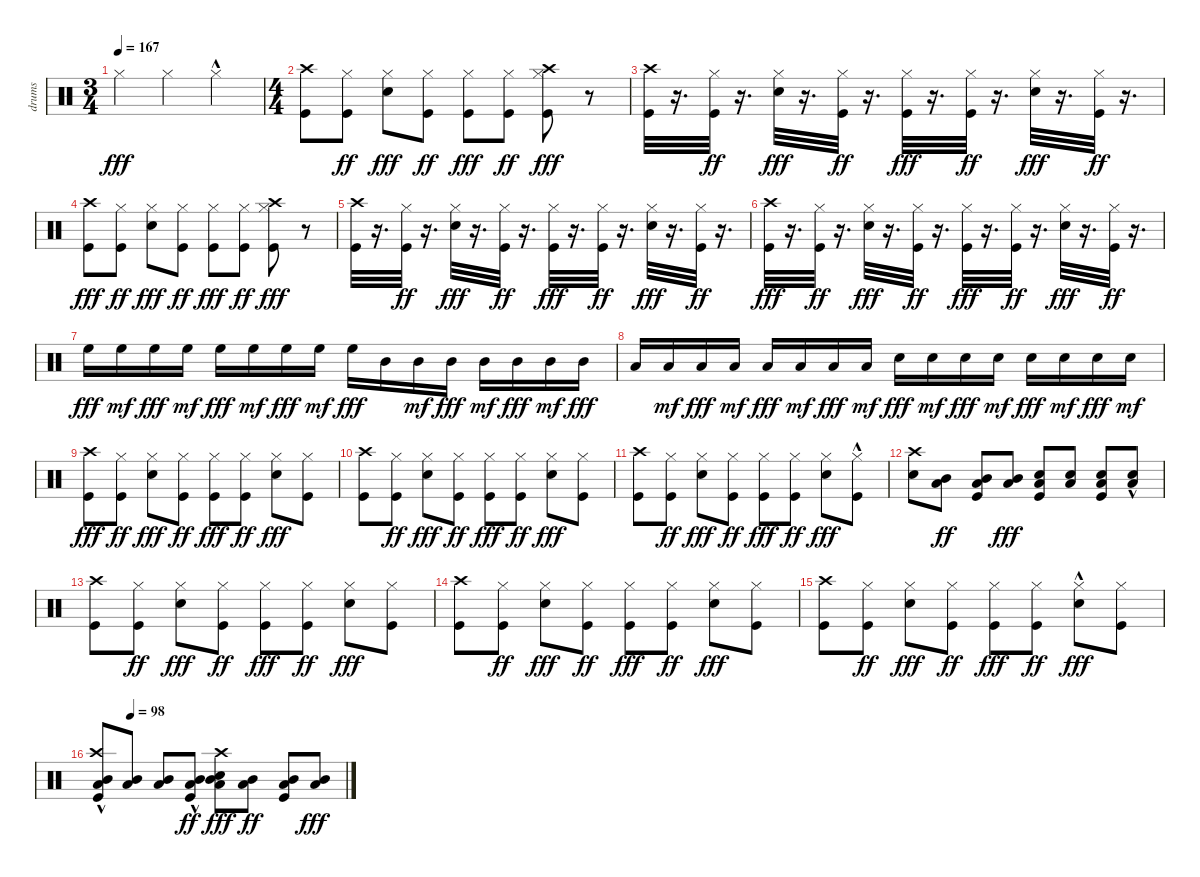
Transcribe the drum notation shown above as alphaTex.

\track ("drums" "drums") {instrument percussion}
\staff {score}
\articulation defaults
\ts (3 4)
\tempo 167
\clef neutral
\ks c "Hi-Hat (closed)".4{dy fff} "Hi-Hat (closed)".4 "Hi-Hat (closed)"{hac}.4
|
\ts (4 4)
("Kick (hit)" "Crash high (hit)").8 ("Kick (hit)" "Hi-Hat (closed)").8{dy ff} ("Snare (hit) 2" "Hi-Hat (closed)").8{dy fff} ("Kick (hit)" "Hi-Hat (closed)").8{dy ff} ("Kick (hit)" "Hi-Hat (closed)").8{dy fff} ("Kick (hit)" "Hi-Hat (closed)").8{dy ff} ("Kick (hit)" "Hi-Hat (closed)" "Crash high (hit)").8{dy fff} r.8 |
("Kick (hit)" "Crash high (hit)").32 r.16{d} ("Kick (hit)" "Hi-Hat (closed)").32{dy ff} r.16{d} ("Snare (hit) 2" "Hi-Hat (closed)").32{dy fff} r.16{d} ("Kick (hit)" "Hi-Hat (closed)").32{dy ff} r.16{d} ("Kick (hit)" "Hi-Hat (closed)").32{dy fff} r.16{d} ("Kick (hit)" "Hi-Hat (closed)").32{dy ff} r.16{d} ("Snare (hit) 2" "Hi-Hat (closed)").32{dy fff} r.16{d} ("Kick (hit)" "Hi-Hat (closed)").32{dy ff} r.16{d} |
("Kick (hit)" "Crash high (hit)").8{dy fff} ("Kick (hit)" "Hi-Hat (closed)").8{dy ff} ("Snare (hit) 2" "Hi-Hat (closed)").8{dy fff} ("Kick (hit)" "Hi-Hat (closed)").8{dy ff} ("Kick (hit)" "Hi-Hat (closed)").8{dy fff} ("Kick (hit)" "Hi-Hat (closed)").8{dy ff} ("Kick (hit)" "Hi-Hat (closed)" "Crash high (hit)").8{dy fff} r.8 |
("Kick (hit)" "Crash high (hit)").32 r.16{d} ("Kick (hit)" "Hi-Hat (closed)").32{dy ff} r.16{d} ("Snare (hit) 2" "Hi-Hat (closed)").32{dy fff} r.16{d} ("Kick (hit)" "Hi-Hat (closed)").32{dy ff} r.16{d} ("Kick (hit)" "Hi-Hat (closed)").32{dy fff} r.16{d} ("Kick (hit)" "Hi-Hat (closed)").32{dy ff} r.16{d} ("Snare (hit) 2" "Hi-Hat (closed)").32{dy fff} r.16{d} ("Kick (hit)" "Hi-Hat (closed)").32{dy ff} r.16{d} |
("Kick (hit)" "Crash high (hit)").32{dy fff} r.16{d} ("Kick (hit)" "Hi-Hat (closed)").32{dy ff} r.16{d} ("Snare (hit) 2" "Hi-Hat (closed)").32{dy fff} r.16{d} ("Kick (hit)" "Hi-Hat (closed)").32{dy ff} r.16{d} ("Kick (hit)" "Hi-Hat (closed)").32{dy fff} r.16{d} ("Kick (hit)" "Hi-Hat (closed)").32{dy ff} r.16{d} ("Snare (hit) 2" "Hi-Hat (closed)").32{dy fff} r.16{d} ("Kick (hit)" "Hi-Hat (closed)").32{dy ff} r.16{d} |
"High Floor Tom (hit)".16{dy fff} "High Floor Tom (hit)".16{dy mf} "High Floor Tom (hit)".16{dy fff} "High Floor Tom (hit)".16{dy mf} "High Floor Tom (hit)".16{dy fff} "High Floor Tom (hit)".16{dy mf} "High Floor Tom (hit)".16{dy fff} "High Floor Tom (hit)".16{dy mf} "High Floor Tom (hit)".16{dy fff} "Mid Tom (hit)".16 "Mid Tom (hit)".16{dy mf} "Mid Tom (hit)".16{dy fff} "Mid Tom (hit)".16{dy mf} "Mid Tom (hit)".16{dy fff} "Mid Tom (hit)".16{dy mf} "Mid Tom (hit)".16{dy fff} |
"Low Floor Tom (hit)".16 "Low Floor Tom (hit)".16{dy mf} "Low Floor Tom (hit)".16{dy fff} "Low Floor Tom (hit)".16{dy mf} "Low Floor Tom (hit)".16{dy fff} "Low Floor Tom (hit)".16{dy mf} "Low Floor Tom (hit)".16{dy fff} "Low Floor Tom (hit)".16{dy mf} "Snare (hit) 2".16{dy fff} "Snare (hit) 2".16{dy mf} "Snare (hit) 2".16{dy fff} "Snare (hit) 2".16{dy mf} "Snare (hit) 2".16{dy fff} "Snare (hit) 2".16{dy mf} "Snare (hit) 2".16{dy fff} "Snare (hit) 2".16{dy mf} |
("Crash high (hit)" "Kick (hit)").8{dy fff} ("Kick (hit)" "Hi-Hat (closed)").8{dy ff} ("Snare (hit) 2" "Hi-Hat (closed)").8{dy fff} ("Kick (hit)" "Hi-Hat (closed)").8{dy ff} ("Kick (hit)" "Hi-Hat (closed)").8{dy fff} ("Kick (hit)" "Hi-Hat (closed)").8{dy ff} ("Snare (hit) 2" "Hi-Hat (closed)").8{dy fff} ("Hi-Hat (closed)" "Kick (hit)").8 |
("Crash high (hit)" "Kick (hit)").8 ("Kick (hit)" "Hi-Hat (closed)").8{dy ff} ("Snare (hit) 2" "Hi-Hat (closed)").8{dy fff} ("Kick (hit)" "Hi-Hat (closed)").8{dy ff} ("Kick (hit)" "Hi-Hat (closed)").8{dy fff} ("Kick (hit)" "Hi-Hat (closed)").8{dy ff} ("Snare (hit) 2" "Hi-Hat (closed)").8{dy fff} ("Hi-Hat (closed)" "Kick (hit)").8 |
("Crash high (hit)" "Kick (hit)").8 ("Kick (hit)" "Hi-Hat (closed)").8{dy ff} ("Snare (hit) 2" "Hi-Hat (closed)").8{dy fff} ("Kick (hit)" "Hi-Hat (closed)").8{dy ff} ("Kick (hit)" "Hi-Hat (closed)").8{dy fff} ("Kick (hit)" "Hi-Hat (closed)").8{dy ff} ("Snare (hit) 2" "Hi-Hat (closed)").8{dy fff} ("Hi-Hat (closed)" "Kick (hit)"{hac}).8 |
("Crash high (hit)" "Snare (hit) 2").8 ("Low Floor Tom (hit)" "Mid Tom (hit)").8{dy ff} ("Low Floor Tom (hit)" "Kick (hit)" "Mid Tom (hit)").8 ("Mid Tom (hit)" "Low Floor Tom (hit)").8{dy fff} ("Snare (hit) 2" "Kick (hit)" "Low Floor Tom (hit)").8 ("Snare (hit) 2" "Low Floor Tom (hit)").8 ("Kick (hit)" "Snare (hit) 2" "Low Floor Tom (hit)").8 ("Low Floor Tom (hit)" "Snare (hit) 2"{hac}).8 |
("Crash high (hit)" "Kick (hit)").8 ("Kick (hit)" "Hi-Hat (closed)").8{dy ff} ("Snare (hit) 2" "Hi-Hat (closed)").8{dy fff} ("Kick (hit)" "Hi-Hat (closed)").8{dy ff} ("Kick (hit)" "Hi-Hat (closed)").8{dy fff} ("Kick (hit)" "Hi-Hat (closed)").8{dy ff} ("Snare (hit) 2" "Hi-Hat (closed)").8{dy fff} ("Hi-Hat (closed)" "Kick (hit)").8 |
("Crash high (hit)" "Kick (hit)").8 ("Kick (hit)" "Hi-Hat (closed)").8{dy ff} ("Snare (hit) 2" "Hi-Hat (closed)").8{dy fff} ("Kick (hit)" "Hi-Hat (closed)").8{dy ff} ("Kick (hit)" "Hi-Hat (closed)").8{dy fff} ("Kick (hit)" "Hi-Hat (closed)").8{dy ff} ("Snare (hit) 2" "Hi-Hat (closed)").8{dy fff} ("Hi-Hat (closed)" "Kick (hit)").8 |
("Crash high (hit)" "Kick (hit)").8 ("Kick (hit)" "Hi-Hat (closed)").8{dy ff} ("Snare (hit) 2" "Hi-Hat (closed)").8{dy fff} ("Kick (hit)" "Hi-Hat (closed)").8{dy ff} ("Kick (hit)" "Hi-Hat (closed)").8{dy fff} ("Kick (hit)" "Hi-Hat (closed)").8{dy ff} ("Snare (hit) 2"{hac} "Hi-Hat (closed)").8{dy fff} ("Hi-Hat (closed)" "Kick (hit)").8 |
\tempo (98 0.125)
("Low Floor Tom (hit)" "Kick (hit)"{hac} "Mid Tom (hit)" "Crash high (hit)").8 ("Low Floor Tom (hit)" "Mid Tom (hit)").8 ("Low Floor Tom (hit)" "Mid Tom (hit)").8 ("Kick (hit)"{hac} "Low Floor Tom (hit)" "Mid Tom (hit)").8{dy ff} ("Crash high (hit)" "Snare (hit) 2" "Mid Tom (hit)" "Low Floor Tom (hit)").8{dy fff} ("Low Floor Tom (hit)" "Mid Tom (hit)").8{dy ff} ("Kick (hit)" "Low Floor Tom (hit)" "Mid Tom (hit)").8 ("Mid Tom (hit)" "Low Floor Tom (hit)").8{dy fff}
